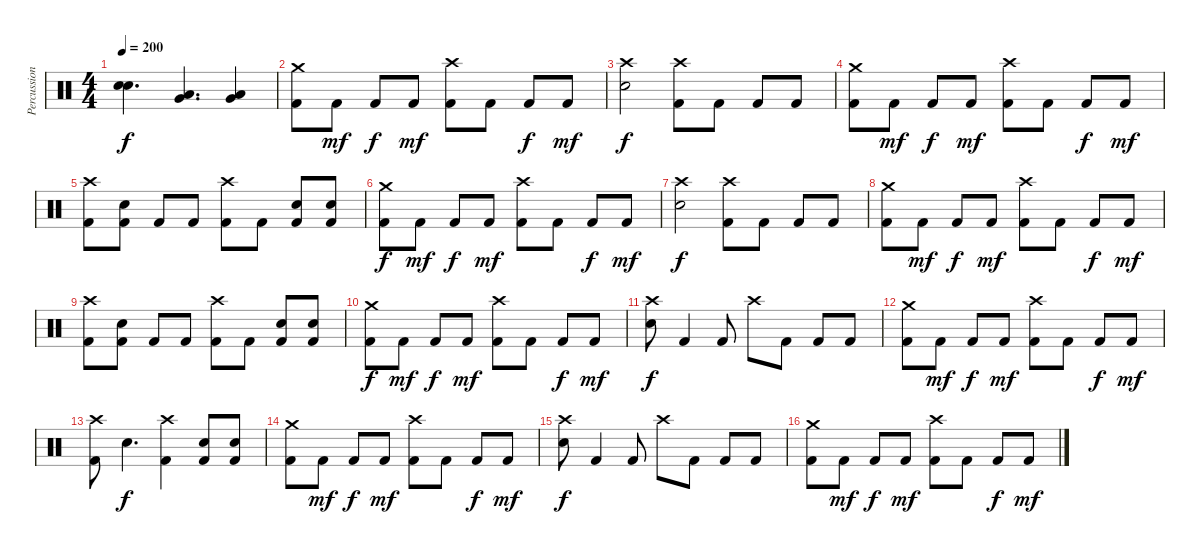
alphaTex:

\track ("Percussions" "Percussion") {instrument percussion}
\staff {score}
\articulation defaults
\ts (4 4)
\tempo 200
\clef neutral
\ks c
("Electric Snare (hit)" "Electric Snare (hit)").4{d dy f} ("Low Tom (hit)" "Very Low Tom (hit)").4{d} ("Low Floor Tom (hit)" "Very Low Tom (hit)").4 |
("Crash medium (hit)" "Kick (hit) 2").8 "Kick (hit) 2".8{dy mf} "Kick (hit) 2".8{dy f} "Kick (hit) 2".8{dy mf} ("Crash high (hit)" "Kick (hit) 2").8 "Kick (hit) 2".8 "Kick (hit) 2".8{dy f} "Kick (hit) 2".8{dy mf} |
("Crash high (hit)" "Electric Snare (hit)").2{dy f} ("Crash high (hit)" "Kick (hit) 2").8 "Kick (hit) 2".8 "Kick (hit) 2".8 "Kick (hit) 2".8 |
("Crash medium (hit)" "Kick (hit) 2").8 "Kick (hit) 2".8{dy mf} "Kick (hit) 2".8{dy f} "Kick (hit) 2".8{dy mf} ("Crash high (hit)" "Kick (hit) 2").8 "Kick (hit) 2".8 "Kick (hit) 2".8{dy f} "Kick (hit) 2".8{dy mf} |
("Crash high (hit)" "Kick (hit) 2").8 ("Electric Snare (hit)" "Kick (hit) 2").8 "Kick (hit) 2".8 "Kick (hit) 2".8 ("Crash high (hit)" "Kick (hit) 2").8 "Kick (hit) 2".8 ("Electric Snare (hit)" "Kick (hit) 2").8 ("Electric Snare (hit)" "Kick (hit) 2").8 |
("Crash medium (hit)" "Kick (hit) 2").8{dy f} "Kick (hit) 2".8{dy mf} "Kick (hit) 2".8{dy f} "Kick (hit) 2".8{dy mf} ("Crash high (hit)" "Kick (hit) 2").8 "Kick (hit) 2".8 "Kick (hit) 2".8{dy f} "Kick (hit) 2".8{dy mf} |
("Crash high (hit)" "Electric Snare (hit)").2{dy f} ("Crash high (hit)" "Kick (hit) 2").8 "Kick (hit) 2".8 "Kick (hit) 2".8 "Kick (hit) 2".8 |
("Crash medium (hit)" "Kick (hit) 2").8 "Kick (hit) 2".8{dy mf} "Kick (hit) 2".8{dy f} "Kick (hit) 2".8{dy mf} ("Crash high (hit)" "Kick (hit) 2").8 "Kick (hit) 2".8 "Kick (hit) 2".8{dy f} "Kick (hit) 2".8{dy mf} |
("Crash high (hit)" "Kick (hit) 2").8 ("Electric Snare (hit)" "Kick (hit) 2").8 "Kick (hit) 2".8 "Kick (hit) 2".8 ("Crash high (hit)" "Kick (hit) 2").8 "Kick (hit) 2".8 ("Electric Snare (hit)" "Kick (hit) 2").8 ("Electric Snare (hit)" "Kick (hit) 2").8 |
("Crash medium (hit)" "Kick (hit) 2").8{dy f} "Kick (hit) 2".8{dy mf} "Kick (hit) 2".8{dy f} "Kick (hit) 2".8{dy mf} ("Crash high (hit)" "Kick (hit) 2").8 "Kick (hit) 2".8 "Kick (hit) 2".8{dy f} "Kick (hit) 2".8{dy mf} |
("Crash high (hit)" "Electric Snare (hit)").8{dy f} "Kick (hit) 2".4 "Kick (hit) 2".8 "Crash high (hit)".8 "Kick (hit) 2".8 "Kick (hit) 2".8 "Kick (hit) 2".8 |
("Crash medium (hit)" "Kick (hit) 2").8 "Kick (hit) 2".8{dy mf} "Kick (hit) 2".8{dy f} "Kick (hit) 2".8{dy mf} ("Crash high (hit)" "Kick (hit) 2").8 "Kick (hit) 2".8 "Kick (hit) 2".8{dy f} "Kick (hit) 2".8{dy mf} |
("Crash high (hit)" "Kick (hit) 2").8 "Electric Snare (hit)".4{d dy f} ("Crash high (hit)" "Kick (hit) 2").4 ("Electric Snare (hit)" "Kick (hit) 2").8 ("Electric Snare (hit)" "Kick (hit) 2").8 |
("Crash medium (hit)" "Kick (hit) 2").8 "Kick (hit) 2".8{dy mf} "Kick (hit) 2".8{dy f} "Kick (hit) 2".8{dy mf} ("Crash high (hit)" "Kick (hit) 2").8 "Kick (hit) 2".8 "Kick (hit) 2".8{dy f} "Kick (hit) 2".8{dy mf} |
("Crash high (hit)" "Electric Snare (hit)").8{dy f} "Kick (hit) 2".4 "Kick (hit) 2".8 "Crash high (hit)".8 "Kick (hit) 2".8 "Kick (hit) 2".8 "Kick (hit) 2".8 |
("Crash medium (hit)" "Kick (hit) 2").8 "Kick (hit) 2".8{dy mf} "Kick (hit) 2".8{dy f} "Kick (hit) 2".8{dy mf} ("Crash high (hit)" "Kick (hit) 2").8 "Kick (hit) 2".8 "Kick (hit) 2".8{dy f} "Kick (hit) 2".8{dy mf}
